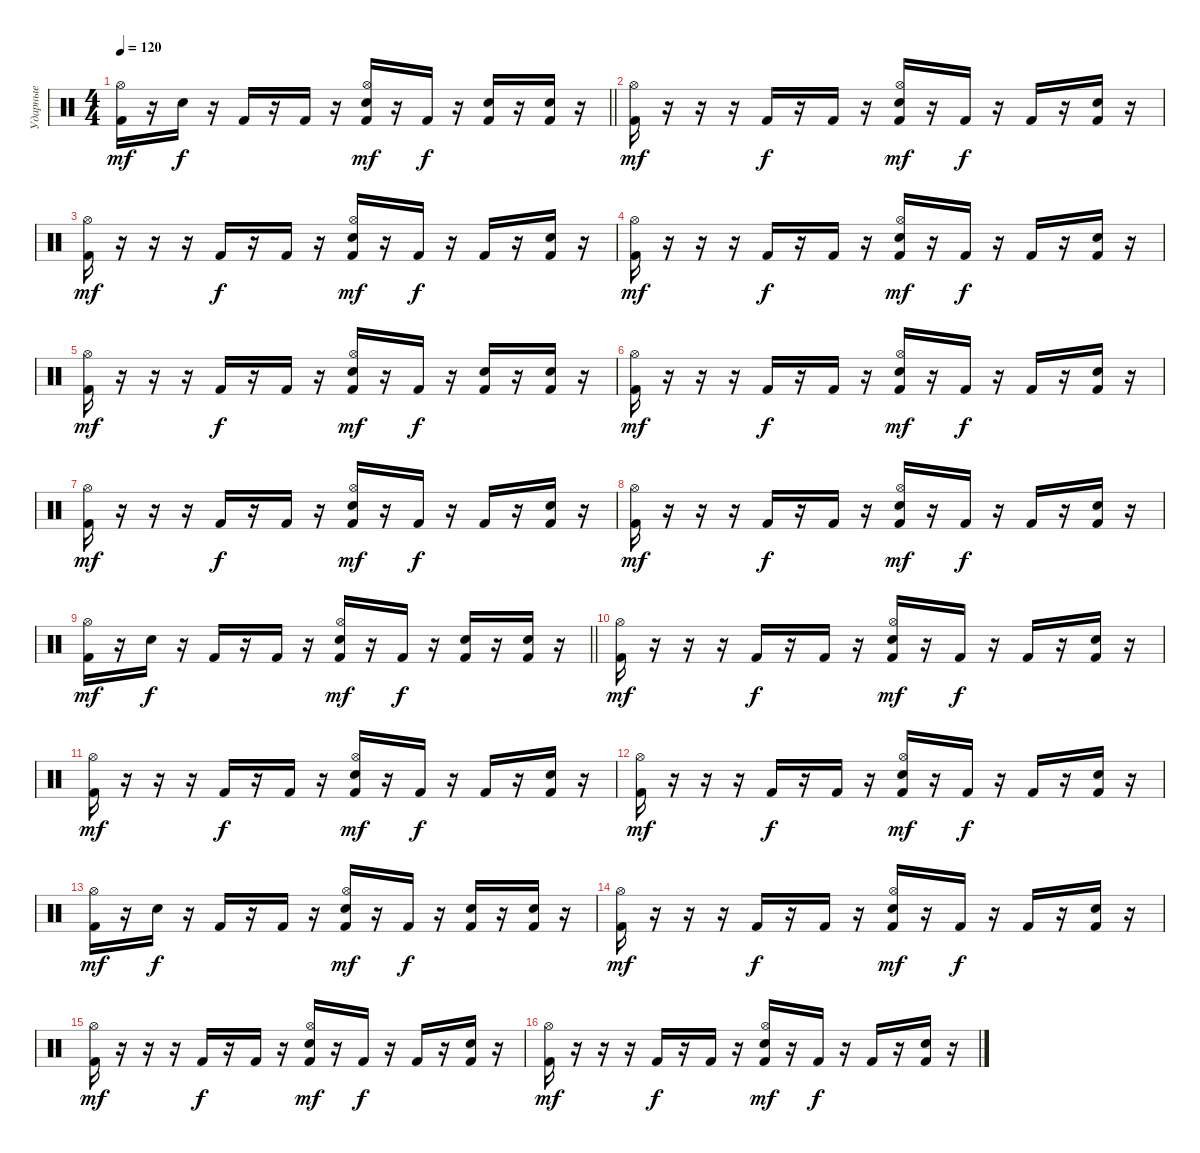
\track ("Ударные" "Ударные") {instrument percussion}
\staff {score}
\articulation defaults
\ts (4 4)
\tempo 120
\clef neutral
\barLineRight lightlight
\ks c
("Kick (hit) 2" "Hi-Hat (open)").16{dy mf} r.16 "Snare (hit) 2".16{dy f} r.16 "Kick (hit) 2".16 r.16 "Kick (hit) 2".16 r.16 ("Kick (hit) 2" "Hi-Hat (open)" "Snare (hit) 2").16{dy mf} r.16 "Kick (hit) 2".16{dy f} r.16 ("Kick (hit) 2" "Snare (hit) 2").16 r.16 ("Kick (hit) 2" "Snare (hit) 2").16 r.16 |
("Kick (hit) 2" "Hi-Hat (open)").16{dy mf} r.16 r.16 r.16 "Kick (hit) 2".16{dy f} r.16 "Kick (hit) 2".16 r.16 ("Kick (hit) 2" "Hi-Hat (open)" "Snare (hit) 2").16{dy mf} r.16 "Kick (hit) 2".16{dy f} r.16 "Kick (hit) 2".16 r.16 ("Kick (hit) 2" "Snare (hit) 2").16 r.16 |
("Kick (hit) 2" "Hi-Hat (open)").16{dy mf} r.16 r.16 r.16 "Kick (hit) 2".16{dy f} r.16 "Kick (hit) 2".16 r.16 ("Kick (hit) 2" "Hi-Hat (open)" "Snare (hit) 2").16{dy mf} r.16 "Kick (hit) 2".16{dy f} r.16 "Kick (hit) 2".16 r.16 ("Kick (hit) 2" "Snare (hit) 2").16 r.16 |
("Kick (hit) 2" "Hi-Hat (open)").16{dy mf} r.16 r.16 r.16 "Kick (hit) 2".16{dy f} r.16 "Kick (hit) 2".16 r.16 ("Kick (hit) 2" "Hi-Hat (open)" "Snare (hit) 2").16{dy mf} r.16 "Kick (hit) 2".16{dy f} r.16 "Kick (hit) 2".16 r.16 ("Kick (hit) 2" "Snare (hit) 2").16 r.16 |
("Kick (hit) 2" "Hi-Hat (open)").16{dy mf} r.16 r.16 r.16 "Kick (hit) 2".16{dy f} r.16 "Kick (hit) 2".16 r.16 ("Kick (hit) 2" "Hi-Hat (open)" "Snare (hit) 2").16{dy mf} r.16 "Kick (hit) 2".16{dy f} r.16 ("Kick (hit) 2" "Snare (hit) 2").16 r.16 ("Kick (hit) 2" "Snare (hit) 2").16 r.16 |
("Kick (hit) 2" "Hi-Hat (open)").16{dy mf} r.16 r.16 r.16 "Kick (hit) 2".16{dy f} r.16 "Kick (hit) 2".16 r.16 ("Kick (hit) 2" "Hi-Hat (open)" "Snare (hit) 2").16{dy mf} r.16 "Kick (hit) 2".16{dy f} r.16 "Kick (hit) 2".16 r.16 ("Kick (hit) 2" "Snare (hit) 2").16 r.16 |
("Kick (hit) 2" "Hi-Hat (open)").16{dy mf} r.16 r.16 r.16 "Kick (hit) 2".16{dy f} r.16 "Kick (hit) 2".16 r.16 ("Kick (hit) 2" "Hi-Hat (open)" "Snare (hit) 2").16{dy mf} r.16 "Kick (hit) 2".16{dy f} r.16 "Kick (hit) 2".16 r.16 ("Kick (hit) 2" "Snare (hit) 2").16 r.16 |
("Kick (hit) 2" "Hi-Hat (open)").16{dy mf} r.16 r.16 r.16 "Kick (hit) 2".16{dy f} r.16 "Kick (hit) 2".16 r.16 ("Kick (hit) 2" "Hi-Hat (open)" "Snare (hit) 2").16{dy mf} r.16 "Kick (hit) 2".16{dy f} r.16 "Kick (hit) 2".16 r.16 ("Kick (hit) 2" "Snare (hit) 2").16 r.16 |
\barLineRight lightlight
("Kick (hit) 2" "Hi-Hat (open)").16{dy mf} r.16 "Snare (hit) 2".16{dy f} r.16 "Kick (hit) 2".16 r.16 "Kick (hit) 2".16 r.16 ("Kick (hit) 2" "Hi-Hat (open)" "Snare (hit) 2").16{dy mf} r.16 "Kick (hit) 2".16{dy f} r.16 ("Kick (hit) 2" "Snare (hit) 2").16 r.16 ("Kick (hit) 2" "Snare (hit) 2").16 r.16 |
("Kick (hit) 2" "Hi-Hat (open)").16{dy mf} r.16 r.16 r.16 "Kick (hit) 2".16{dy f} r.16 "Kick (hit) 2".16 r.16 ("Kick (hit) 2" "Hi-Hat (open)" "Snare (hit) 2").16{dy mf} r.16 "Kick (hit) 2".16{dy f} r.16 "Kick (hit) 2".16 r.16 ("Kick (hit) 2" "Snare (hit) 2").16 r.16 |
("Kick (hit) 2" "Hi-Hat (open)").16{dy mf} r.16 r.16 r.16 "Kick (hit) 2".16{dy f} r.16 "Kick (hit) 2".16 r.16 ("Kick (hit) 2" "Hi-Hat (open)" "Snare (hit) 2").16{dy mf} r.16 "Kick (hit) 2".16{dy f} r.16 "Kick (hit) 2".16 r.16 ("Kick (hit) 2" "Snare (hit) 2").16 r.16 |
("Kick (hit) 2" "Hi-Hat (open)").16{dy mf} r.16 r.16 r.16 "Kick (hit) 2".16{dy f} r.16 "Kick (hit) 2".16 r.16 ("Kick (hit) 2" "Hi-Hat (open)" "Snare (hit) 2").16{dy mf} r.16 "Kick (hit) 2".16{dy f} r.16 "Kick (hit) 2".16 r.16 ("Kick (hit) 2" "Snare (hit) 2").16 r.16 |
("Kick (hit) 2" "Hi-Hat (open)").16{dy mf} r.16 "Snare (hit) 2".16{dy f} r.16 "Kick (hit) 2".16 r.16 "Kick (hit) 2".16 r.16 ("Kick (hit) 2" "Hi-Hat (open)" "Snare (hit) 2").16{dy mf} r.16 "Kick (hit) 2".16{dy f} r.16 ("Kick (hit) 2" "Snare (hit) 2").16 r.16 ("Kick (hit) 2" "Snare (hit) 2").16 r.16 |
("Kick (hit) 2" "Hi-Hat (open)").16{dy mf volume 10} r.16 r.16 r.16 "Kick (hit) 2".16{dy f} r.16 "Kick (hit) 2".16 r.16 ("Kick (hit) 2" "Hi-Hat (open)" "Snare (hit) 2").16{dy mf} r.16 "Kick (hit) 2".16{dy f} r.16 "Kick (hit) 2".16 r.16 ("Kick (hit) 2" "Snare (hit) 2").16 r.16 |
("Kick (hit) 2" "Hi-Hat (open)").16{dy mf} r.16 r.16 r.16 "Kick (hit) 2".16{dy f} r.16 "Kick (hit) 2".16 r.16 ("Kick (hit) 2" "Hi-Hat (open)" "Snare (hit) 2").16{dy mf} r.16 "Kick (hit) 2".16{dy f} r.16 "Kick (hit) 2".16 r.16 ("Kick (hit) 2" "Snare (hit) 2").16 r.16 |
("Kick (hit) 2" "Hi-Hat (open)").16{dy mf} r.16 r.16 r.16 "Kick (hit) 2".16{dy f} r.16 "Kick (hit) 2".16 r.16 ("Kick (hit) 2" "Hi-Hat (open)" "Snare (hit) 2").16{dy mf} r.16 "Kick (hit) 2".16{dy f} r.16 "Kick (hit) 2".16 r.16 ("Kick (hit) 2" "Snare (hit) 2").16 r.16
